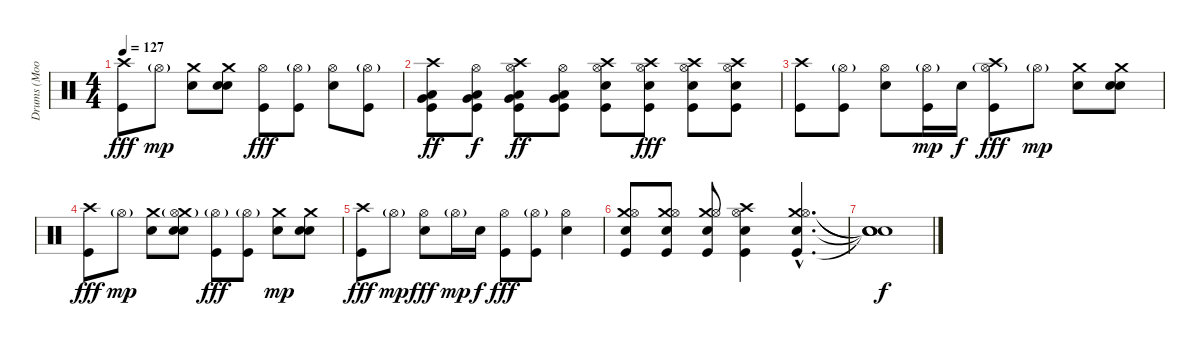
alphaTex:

\track ("Drums (Moon)" "Drums (Moo") {instrument percussion}
\staff {score}
\articulation defaults
\ts (4 4)
\tempo 127
\clef neutral
\ks c
("Crash high (hit)" "Kick (hit)").8{dy fff} "Hi-Hat (open)"{g}.8{dy mp} ("Crash medium (hit)" "Electric Snare (hit)").8 ("Crash medium (hit)" "Electric Snare (hit)" "Snare (hit) 2").8 ("Hi-Hat (open)" "Kick (hit)").8{dy fff} ("Hi-Hat (open)"{g} "Kick (hit)").8 ("Hi-Hat (open)" "Electric Snare (hit)").8 ("Hi-Hat (open)"{g} "Kick (hit)").8 |
("Crash high (hit)" "Very Low Tom (hit)" "Low Floor Tom (hit)" "Kick (hit)").8{dy ff} ("Hi-Hat (open)" "Very Low Tom (hit)" "Low Floor Tom (hit)" "Kick (hit)").8{dy f} ("Crash high (hit)" "Hi-Hat (open)" "Low Tom (hit)" "Very Low Tom (hit)" "Kick (hit)").8{dy ff} ("Hi-Hat (open)" "Low Tom (hit)" "Very Low Tom (hit)" "Kick (hit)").8 ("Crash high (hit)" "Hi-Hat (open)" "Electric Snare (hit)" "Kick (hit)").8 ("Crash high (hit)" "Hi-Hat (open)" "Electric Snare (hit)" "Kick (hit)").8{dy fff} ("Crash high (hit)" "Hi-Hat (open)" "Electric Snare (hit)" "Kick (hit)").8 ("Crash high (hit)" "Hi-Hat (open)" "Electric Snare (hit)" "Kick (hit)").8 |
("Crash high (hit)" "Kick (hit)").8 ("Hi-Hat (open)"{g} "Kick (hit)").8 ("Hi-Hat (open)" "Electric Snare (hit)").8 ("Hi-Hat (open)"{g} "Kick (hit)").16{dy mp} "Electric Snare (hit)".16{dy f} ("Crash high (hit)" "Hi-Hat (open)"{g} "Kick (hit)").8{dy fff} "Hi-Hat (open)"{g}.8{dy mp} ("Crash medium (hit)" "Electric Snare (hit)").8 ("Crash medium (hit)" "Electric Snare (hit)" "Snare (hit) 2").8 |
("Crash high (hit)" "Kick (hit)").8{dy fff} "Hi-Hat (open)"{g}.8{dy mp} ("Crash medium (hit)" "Electric Snare (hit)").8 ("Crash medium (hit)" "Hi-Hat (open)"{g} "Electric Snare (hit)" "Snare (hit) 2").8 ("Hi-Hat (open)"{g} "Kick (hit)").8{dy fff} ("Hi-Hat (open)"{g} "Kick (hit)").8 ("Crash medium (hit)" "Electric Snare (hit)").8{dy mp} ("Crash medium (hit)" "Electric Snare (hit)" "Snare (hit) 2").8 |
("Crash high (hit)" "Kick (hit)").8{dy fff} "Hi-Hat (open)"{g}.8{dy mp} ("Hi-Hat (open)" "Electric Snare (hit)").8{dy fff} "Hi-Hat (open)"{g}.16{dy mp} "Electric Snare (hit)".16{dy f} ("Hi-Hat (open)" "Kick (hit)").8{dy fff} ("Hi-Hat (open)"{g} "Kick (hit)").8 ("Hi-Hat (open)" "Electric Snare (hit)").4 |
("Crash medium (hit)" "Hi-Hat (open)" "Electric Snare (hit)" "Kick (hit)").8 ("Crash medium (hit)" "Hi-Hat (open)" "Electric Snare (hit)" "Kick (hit)").8 ("Crash medium (hit)" "Hi-Hat (open)" "Electric Snare (hit)" "Kick (hit)").8 ("Crash high (hit)" "Hi-Hat (open)" "Electric Snare (hit)" "Kick (hit)").4 ("Crash medium (hit)"{hac} "Hi-Hat (open)"{hac} "Electric Snare (hit)"{hac} "Kick (hit)"{hac}).4{d} |
("Snare (hit)"{t} "Snare (hit)"{t} "Snare (hit)"{t} "Snare (hit)"{t}).1{dy f}
